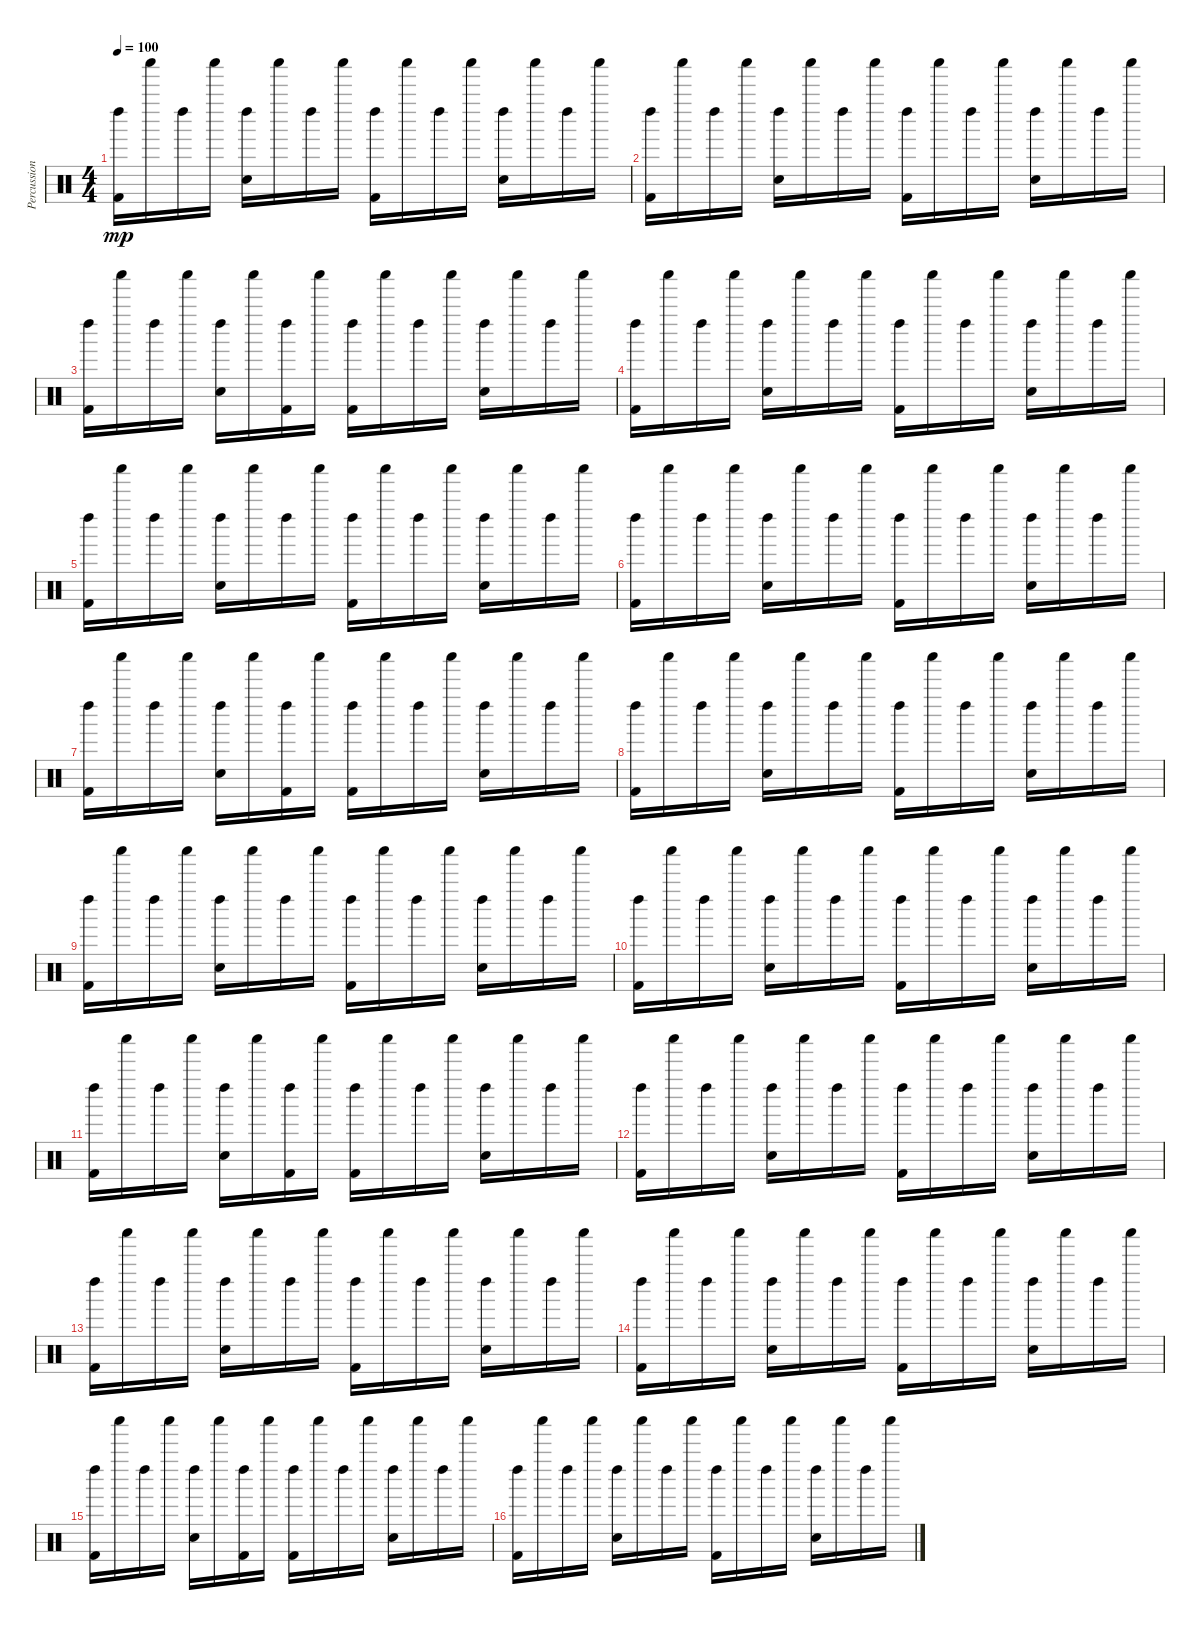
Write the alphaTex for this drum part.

\track ("Percussion" "Percussion") {instrument percussion}
\staff {score}
\articulation defaults
\ts (4 4)
\tempo 100
\clef neutral
\ks c
("Kick (hit) 2" "Left Maraca (hit)").16{dy mp} "Shaker (hit)".16 "Left Maraca (hit)".16 "Shaker (hit)".16 ("Snare (hit) 2" "Left Maraca (hit)").16 "Shaker (hit)".16 "Left Maraca (hit)".16 "Shaker (hit)".16 ("Kick (hit) 2" "Left Maraca (hit)").16 "Shaker (hit)".16 "Left Maraca (hit)".16 "Shaker (hit)".16 ("Snare (hit) 2" "Left Maraca (hit)").16 "Shaker (hit)".16 "Left Maraca (hit)".16 "Shaker (hit)".16 |
("Kick (hit) 2" "Left Maraca (hit)").16 "Shaker (hit)".16 "Left Maraca (hit)".16 "Shaker (hit)".16 ("Snare (hit) 2" "Left Maraca (hit)").16 "Shaker (hit)".16 "Left Maraca (hit)".16 "Shaker (hit)".16 ("Kick (hit) 2" "Left Maraca (hit)").16 "Shaker (hit)".16 "Left Maraca (hit)".16 "Shaker (hit)".16 ("Snare (hit) 2" "Left Maraca (hit)").16 "Shaker (hit)".16 "Left Maraca (hit)".16 "Shaker (hit)".16 |
("Kick (hit) 2" "Left Maraca (hit)").16 "Shaker (hit)".16 "Left Maraca (hit)".16 "Shaker (hit)".16 ("Snare (hit) 2" "Left Maraca (hit)").16 "Shaker (hit)".16 ("Kick (hit) 2" "Left Maraca (hit)").16 "Shaker (hit)".16 ("Kick (hit) 2" "Left Maraca (hit)").16 "Shaker (hit)".16 "Left Maraca (hit)".16 "Shaker (hit)".16 ("Snare (hit) 2" "Left Maraca (hit)").16 "Shaker (hit)".16 "Left Maraca (hit)".16 "Shaker (hit)".16 |
("Kick (hit) 2" "Left Maraca (hit)").16 "Shaker (hit)".16 "Left Maraca (hit)".16 "Shaker (hit)".16 ("Snare (hit) 2" "Left Maraca (hit)").16 "Shaker (hit)".16 "Left Maraca (hit)".16 "Shaker (hit)".16 ("Kick (hit) 2" "Left Maraca (hit)").16 "Shaker (hit)".16 "Left Maraca (hit)".16 "Shaker (hit)".16 ("Snare (hit) 2" "Left Maraca (hit)").16 "Shaker (hit)".16 "Left Maraca (hit)".16 "Shaker (hit)".16 |
("Kick (hit) 2" "Left Maraca (hit)").16 "Shaker (hit)".16 "Left Maraca (hit)".16 "Shaker (hit)".16 ("Snare (hit) 2" "Left Maraca (hit)").16 "Shaker (hit)".16 "Left Maraca (hit)".16 "Shaker (hit)".16 ("Kick (hit) 2" "Left Maraca (hit)").16 "Shaker (hit)".16 "Left Maraca (hit)".16 "Shaker (hit)".16 ("Snare (hit) 2" "Left Maraca (hit)").16 "Shaker (hit)".16 "Left Maraca (hit)".16 "Shaker (hit)".16 |
("Kick (hit) 2" "Left Maraca (hit)").16 "Shaker (hit)".16 "Left Maraca (hit)".16 "Shaker (hit)".16 ("Snare (hit) 2" "Left Maraca (hit)").16 "Shaker (hit)".16 "Left Maraca (hit)".16 "Shaker (hit)".16 ("Kick (hit) 2" "Left Maraca (hit)").16 "Shaker (hit)".16 "Left Maraca (hit)".16 "Shaker (hit)".16 ("Snare (hit) 2" "Left Maraca (hit)").16 "Shaker (hit)".16 "Left Maraca (hit)".16 "Shaker (hit)".16 |
("Kick (hit) 2" "Left Maraca (hit)").16 "Shaker (hit)".16 "Left Maraca (hit)".16 "Shaker (hit)".16 ("Snare (hit) 2" "Left Maraca (hit)").16 "Shaker (hit)".16 ("Kick (hit) 2" "Left Maraca (hit)").16 "Shaker (hit)".16 ("Kick (hit) 2" "Left Maraca (hit)").16 "Shaker (hit)".16 "Left Maraca (hit)".16 "Shaker (hit)".16 ("Snare (hit) 2" "Left Maraca (hit)").16 "Shaker (hit)".16 "Left Maraca (hit)".16 "Shaker (hit)".16 |
("Kick (hit) 2" "Left Maraca (hit)").16 "Shaker (hit)".16 "Left Maraca (hit)".16 "Shaker (hit)".16 ("Snare (hit) 2" "Left Maraca (hit)").16 "Shaker (hit)".16 "Left Maraca (hit)".16 "Shaker (hit)".16 ("Kick (hit) 2" "Left Maraca (hit)").16 "Shaker (hit)".16 "Left Maraca (hit)".16 "Shaker (hit)".16 ("Snare (hit) 2" "Left Maraca (hit)").16 "Shaker (hit)".16 "Left Maraca (hit)".16 "Shaker (hit)".16 |
("Kick (hit) 2" "Left Maraca (hit)").16 "Shaker (hit)".16 "Left Maraca (hit)".16 "Shaker (hit)".16 ("Snare (hit) 2" "Left Maraca (hit)").16 "Shaker (hit)".16 "Left Maraca (hit)".16 "Shaker (hit)".16 ("Kick (hit) 2" "Left Maraca (hit)").16 "Shaker (hit)".16 "Left Maraca (hit)".16 "Shaker (hit)".16 ("Snare (hit) 2" "Left Maraca (hit)").16 "Shaker (hit)".16 "Left Maraca (hit)".16 "Shaker (hit)".16 |
("Kick (hit) 2" "Left Maraca (hit)").16 "Shaker (hit)".16 "Left Maraca (hit)".16 "Shaker (hit)".16 ("Snare (hit) 2" "Left Maraca (hit)").16 "Shaker (hit)".16 "Left Maraca (hit)".16 "Shaker (hit)".16 ("Kick (hit) 2" "Left Maraca (hit)").16 "Shaker (hit)".16 "Left Maraca (hit)".16 "Shaker (hit)".16 ("Snare (hit) 2" "Left Maraca (hit)").16 "Shaker (hit)".16 "Left Maraca (hit)".16 "Shaker (hit)".16 |
("Kick (hit) 2" "Left Maraca (hit)").16 "Shaker (hit)".16 "Left Maraca (hit)".16 "Shaker (hit)".16 ("Snare (hit) 2" "Left Maraca (hit)").16 "Shaker (hit)".16 ("Kick (hit) 2" "Left Maraca (hit)").16 "Shaker (hit)".16 ("Kick (hit) 2" "Left Maraca (hit)").16 "Shaker (hit)".16 "Left Maraca (hit)".16 "Shaker (hit)".16 ("Snare (hit) 2" "Left Maraca (hit)").16 "Shaker (hit)".16 "Left Maraca (hit)".16 "Shaker (hit)".16 |
("Kick (hit) 2" "Left Maraca (hit)").16 "Shaker (hit)".16 "Left Maraca (hit)".16 "Shaker (hit)".16 ("Snare (hit) 2" "Left Maraca (hit)").16 "Shaker (hit)".16 "Left Maraca (hit)".16 "Shaker (hit)".16 ("Kick (hit) 2" "Left Maraca (hit)").16 "Shaker (hit)".16 "Left Maraca (hit)".16 "Shaker (hit)".16 ("Snare (hit) 2" "Left Maraca (hit)").16 "Shaker (hit)".16 "Left Maraca (hit)".16 "Shaker (hit)".16 |
("Kick (hit) 2" "Left Maraca (hit)").16 "Shaker (hit)".16 "Left Maraca (hit)".16 "Shaker (hit)".16 ("Snare (hit) 2" "Left Maraca (hit)").16 "Shaker (hit)".16 "Left Maraca (hit)".16 "Shaker (hit)".16 ("Kick (hit) 2" "Left Maraca (hit)").16 "Shaker (hit)".16 "Left Maraca (hit)".16 "Shaker (hit)".16 ("Snare (hit) 2" "Left Maraca (hit)").16 "Shaker (hit)".16 "Left Maraca (hit)".16 "Shaker (hit)".16 |
("Kick (hit) 2" "Left Maraca (hit)").16 "Shaker (hit)".16 "Left Maraca (hit)".16 "Shaker (hit)".16 ("Snare (hit) 2" "Left Maraca (hit)").16 "Shaker (hit)".16 "Left Maraca (hit)".16 "Shaker (hit)".16 ("Kick (hit) 2" "Left Maraca (hit)").16 "Shaker (hit)".16 "Left Maraca (hit)".16 "Shaker (hit)".16 ("Snare (hit) 2" "Left Maraca (hit)").16 "Shaker (hit)".16 "Left Maraca (hit)".16 "Shaker (hit)".16 |
("Kick (hit) 2" "Left Maraca (hit)").16 "Shaker (hit)".16 "Left Maraca (hit)".16 "Shaker (hit)".16 ("Snare (hit) 2" "Left Maraca (hit)").16 "Shaker (hit)".16 ("Kick (hit) 2" "Left Maraca (hit)").16 "Shaker (hit)".16 ("Kick (hit) 2" "Left Maraca (hit)").16 "Shaker (hit)".16 "Left Maraca (hit)".16 "Shaker (hit)".16 ("Snare (hit) 2" "Left Maraca (hit)").16 "Shaker (hit)".16 "Left Maraca (hit)".16 "Shaker (hit)".16 |
("Kick (hit) 2" "Left Maraca (hit)").16 "Shaker (hit)".16 "Left Maraca (hit)".16 "Shaker (hit)".16 ("Snare (hit) 2" "Left Maraca (hit)").16 "Shaker (hit)".16 "Left Maraca (hit)".16 "Shaker (hit)".16 ("Kick (hit) 2" "Left Maraca (hit)").16 "Shaker (hit)".16 "Left Maraca (hit)".16 "Shaker (hit)".16 ("Snare (hit) 2" "Left Maraca (hit)").16 "Shaker (hit)".16 "Left Maraca (hit)".16 "Shaker (hit)".16
